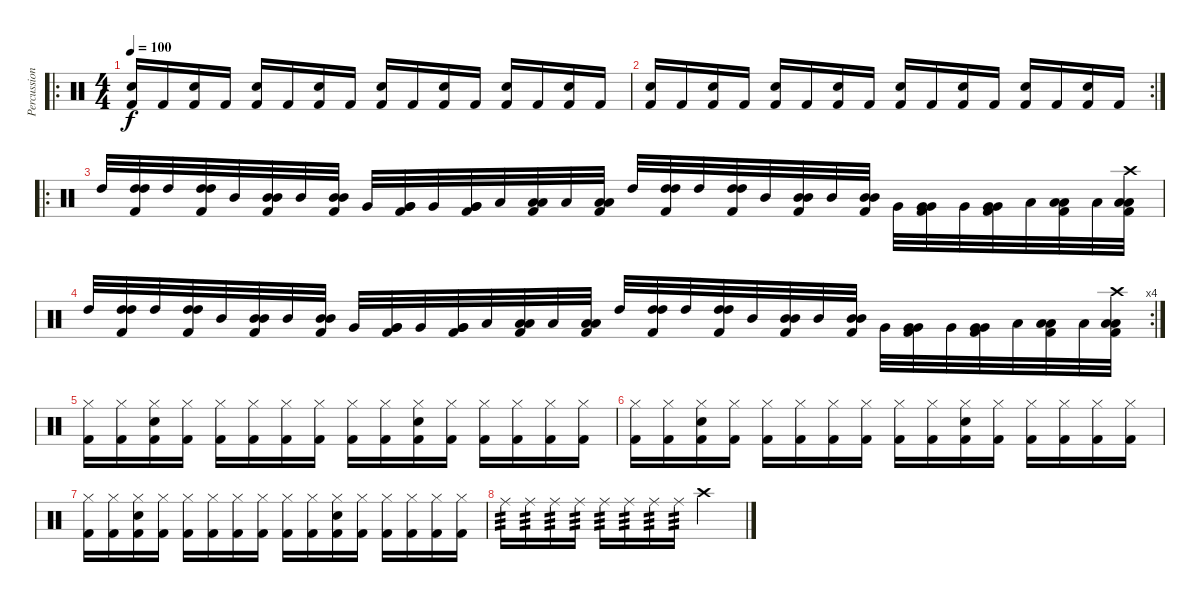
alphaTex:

\track ("Percussion" "Percussion") {instrument percussion}
\staff {score}
\articulation defaults
\ro
\ts (4 4)
\tempo 100
\clef neutral
\ks c
("Snare (hit) 2" "Kick (hit) 2").16{dy f} "Kick (hit) 2".16 ("Snare (hit) 2" "Kick (hit) 2").16 "Kick (hit) 2".16 ("Snare (hit) 2" "Kick (hit) 2").16 "Kick (hit) 2".16 ("Snare (hit) 2" "Kick (hit) 2").16 "Kick (hit) 2".16 ("Snare (hit) 2" "Kick (hit) 2").16 "Kick (hit) 2".16 ("Snare (hit) 2" "Kick (hit) 2").16 "Kick (hit) 2".16 ("Snare (hit) 2" "Kick (hit) 2").16 "Kick (hit) 2".16 ("Snare (hit) 2" "Kick (hit) 2").16 "Kick (hit) 2".16 |
\rc 2
("Snare (hit) 2" "Kick (hit) 2").16 "Kick (hit) 2".16 ("Snare (hit) 2" "Kick (hit) 2").16 "Kick (hit) 2".16 ("Snare (hit) 2" "Kick (hit) 2").16 "Kick (hit) 2".16 ("Snare (hit) 2" "Kick (hit) 2").16 "Kick (hit) 2".16 ("Snare (hit) 2" "Kick (hit) 2").16 "Kick (hit) 2".16 ("Snare (hit) 2" "Kick (hit) 2").16 "Kick (hit) 2".16 ("Snare (hit) 2" "Kick (hit) 2").16 "Kick (hit) 2".16 ("Snare (hit) 2" "Kick (hit) 2").16 "Kick (hit) 2".16 |
\ro "High Tom (hit)".32
("High Tom (hit)" "High Tom (hit)" "Kick (hit) 2").32 "High Tom (hit)".32 ("High Tom (hit)" "High Tom (hit)" "Kick (hit) 2").32 "Mid Tom (hit)".32 ("Mid Tom (hit)" "Mid Tom (hit)" "Kick (hit) 2").32 "Mid Tom (hit)".32 ("Mid Tom (hit)" "Mid Tom (hit)" "Kick (hit) 2").32 "Very Low Tom (hit)".32 ("Very Low Tom (hit)" "Very Low Tom (hit)" "Kick (hit) 2").32 "Very Low Tom (hit)".32 ("Very Low Tom (hit)" "Very Low Tom (hit)" "Kick (hit) 2").32 "Low Floor Tom (hit)".32 ("Low Floor Tom (hit)" "Low Floor Tom (hit)" "Kick (hit) 2").32 "Low Floor Tom (hit)".32 ("Low Floor Tom (hit)" "Low Floor Tom (hit)" "Kick (hit) 2").32 "High Tom (hit)".32 ("High Tom (hit)" "High Tom (hit)" "Kick (hit) 2").32 "High Tom (hit)".32 ("High Tom (hit)" "High Tom (hit)" "Kick (hit) 2").32 "Mid Tom (hit)".32 ("Mid Tom (hit)" "Mid Tom (hit)" "Kick (hit) 2").32 "Mid Tom (hit)".32 ("Mid Tom (hit)" "Mid Tom (hit)" "Kick (hit) 2").32 "Very Low Tom (hit)".32 ("Very Low Tom (hit)" "Very Low Tom (hit)" "Kick (hit) 2").32 "Very Low Tom (hit)".32 ("Very Low Tom (hit)" "Very Low Tom (hit)" "Kick (hit) 2").32 "Low Floor Tom (hit)".32 ("Low Floor Tom (hit)" "Low Floor Tom (hit)" "Kick (hit) 2").32 "Low Floor Tom (hit)".32 ("Crash high (hit)" "Low Floor Tom (hit)" "Low Floor Tom (hit)" "Kick (hit) 2").32 |
\rc 4 "High Tom (hit)".32
("High Tom (hit)" "High Tom (hit)" "Kick (hit) 2").32 "High Tom (hit)".32 ("High Tom (hit)" "High Tom (hit)" "Kick (hit) 2").32 "Mid Tom (hit)".32 ("Mid Tom (hit)" "Mid Tom (hit)" "Kick (hit) 2").32 "Mid Tom (hit)".32 ("Mid Tom (hit)" "Mid Tom (hit)" "Kick (hit) 2").32 "Very Low Tom (hit)".32 ("Very Low Tom (hit)" "Very Low Tom (hit)" "Kick (hit) 2").32 "Very Low Tom (hit)".32 ("Very Low Tom (hit)" "Very Low Tom (hit)" "Kick (hit) 2").32 "Low Floor Tom (hit)".32 ("Low Floor Tom (hit)" "Low Floor Tom (hit)" "Kick (hit) 2").32 "Low Floor Tom (hit)".32 ("Low Floor Tom (hit)" "Low Floor Tom (hit)" "Kick (hit) 2").32 "High Tom (hit)".32 ("High Tom (hit)" "High Tom (hit)" "Kick (hit) 2").32 "High Tom (hit)".32 ("High Tom (hit)" "High Tom (hit)" "Kick (hit) 2").32 "Mid Tom (hit)".32 ("Mid Tom (hit)" "Mid Tom (hit)" "Kick (hit) 2").32 "Mid Tom (hit)".32 ("Mid Tom (hit)" "Mid Tom (hit)" "Kick (hit) 2").32 "Very Low Tom (hit)".32 ("Very Low Tom (hit)" "Very Low Tom (hit)" "Kick (hit) 2").32 "Very Low Tom (hit)".32 ("Very Low Tom (hit)" "Very Low Tom (hit)" "Kick (hit) 2").32 "Low Floor Tom (hit)".32 ("Low Floor Tom (hit)" "Low Floor Tom (hit)" "Kick (hit) 2").32 "Low Floor Tom (hit)".32 ("Crash high (hit)" "Low Floor Tom (hit)" "Low Floor Tom (hit)" "Kick (hit) 2").32 |
("Hi-Hat (closed)" "Kick (hit) 2").16 ("Hi-Hat (closed)" "Kick (hit) 2").16 ("Hi-Hat (closed)" "Snare (hit) 2" "Kick (hit) 2").16 ("Hi-Hat (closed)" "Kick (hit) 2").16 ("Hi-Hat (closed)" "Kick (hit) 2").16 ("Hi-Hat (closed)" "Kick (hit) 2").16 ("Hi-Hat (closed)" "Kick (hit) 2").16 ("Hi-Hat (closed)" "Kick (hit) 2").16 ("Hi-Hat (closed)" "Kick (hit) 2").16 ("Hi-Hat (closed)" "Kick (hit) 2").16 ("Hi-Hat (closed)" "Snare (hit) 2" "Kick (hit) 2").16 ("Hi-Hat (closed)" "Kick (hit) 2").16 ("Hi-Hat (closed)" "Kick (hit) 2").16 ("Hi-Hat (closed)" "Kick (hit) 2").16 ("Hi-Hat (closed)" "Kick (hit) 2").16 ("Hi-Hat (closed)" "Kick (hit) 2").16 |
("Hi-Hat (closed)" "Kick (hit) 2").16 ("Hi-Hat (closed)" "Kick (hit) 2").16 ("Hi-Hat (closed)" "Snare (hit) 2" "Kick (hit) 2").16 ("Hi-Hat (closed)" "Kick (hit) 2").16 ("Hi-Hat (closed)" "Kick (hit) 2").16 ("Hi-Hat (closed)" "Kick (hit) 2").16 ("Hi-Hat (closed)" "Kick (hit) 2").16 ("Hi-Hat (closed)" "Kick (hit) 2").16 ("Hi-Hat (closed)" "Kick (hit) 2").16 ("Hi-Hat (closed)" "Kick (hit) 2").16 ("Hi-Hat (closed)" "Snare (hit) 2" "Kick (hit) 2").16 ("Hi-Hat (closed)" "Kick (hit) 2").16 ("Hi-Hat (closed)" "Kick (hit) 2").16 ("Hi-Hat (closed)" "Kick (hit) 2").16 ("Hi-Hat (closed)" "Kick (hit) 2").16 ("Hi-Hat (closed)" "Kick (hit) 2").16 |
("Hi-Hat (closed)" "Kick (hit) 2").16 ("Hi-Hat (closed)" "Kick (hit) 2").16 ("Hi-Hat (closed)" "Snare (hit) 2" "Kick (hit) 2").16 ("Hi-Hat (closed)" "Kick (hit) 2").16 ("Hi-Hat (closed)" "Kick (hit) 2").16 ("Hi-Hat (closed)" "Kick (hit) 2").16 ("Hi-Hat (closed)" "Kick (hit) 2").16 ("Hi-Hat (closed)" "Kick (hit) 2").16 ("Hi-Hat (closed)" "Kick (hit) 2").16 ("Hi-Hat (closed)" "Kick (hit) 2").16 ("Hi-Hat (closed)" "Snare (hit) 2" "Kick (hit) 2").16 ("Hi-Hat (closed)" "Kick (hit) 2").16 ("Hi-Hat (closed)" "Kick (hit) 2").16 ("Hi-Hat (closed)" "Kick (hit) 2").16 ("Hi-Hat (closed)" "Kick (hit) 2").16 ("Hi-Hat (closed)" "Kick (hit) 2").16 |
"Ride (middle)".16{tp 3} "Ride (middle)".16{tp 3} "Ride (middle)".16{tp 3} "Ride (middle)".16{tp 3} "Ride (middle)".16{tp 3} "Ride (middle)".16{tp 3} "Ride (middle)".16{tp 3} "Ride (middle)".16{tp 3} "Crash high (hit)".2
